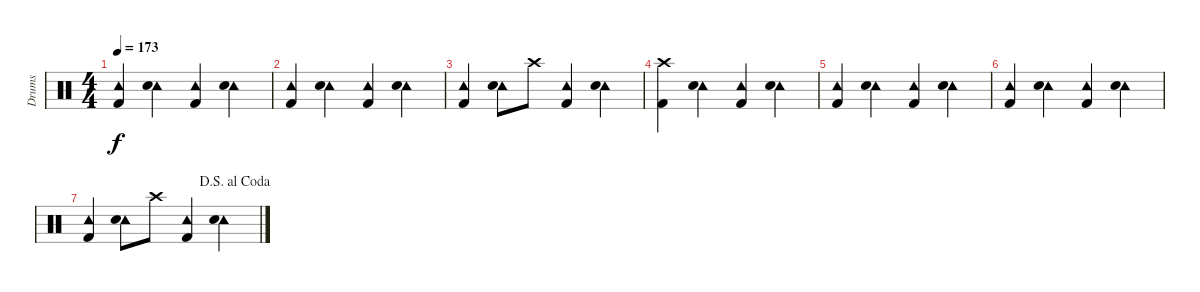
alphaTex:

\track ("Drums" "Drums") {instrument percussion}
\staff {score}
\articulation defaults
\ts (4 4)
\tempo 173
\clef neutral
\ks c
("Tambourine (hit)" "Kick (hit) 2").4{dy f} ("Tambourine (hit)" "Snare (hit) 2").4 ("Tambourine (hit)" "Kick (hit) 2").4 ("Tambourine (hit)" "Snare (hit) 2").4 |
("Tambourine (hit)" "Kick (hit) 2").4 ("Tambourine (hit)" "Snare (hit) 2").4 ("Tambourine (hit)" "Kick (hit) 2").4 ("Tambourine (hit)" "Snare (hit) 2").4 |
("Tambourine (hit)" "Kick (hit) 2").4 ("Tambourine (hit)" "Snare (hit) 2").8 "Crash high (hit)".8 ("Tambourine (hit)" "Kick (hit) 2").4 ("Tambourine (hit)" "Snare (hit) 2").4 |
("Crash high (hit)" "Kick (hit) 2").4 ("Tambourine (hit)" "Snare (hit) 2").4 ("Tambourine (hit)" "Kick (hit) 2").4 ("Tambourine (hit)" "Snare (hit) 2").4 |
("Tambourine (hit)" "Kick (hit) 2").4 ("Tambourine (hit)" "Snare (hit) 2").4 ("Tambourine (hit)" "Kick (hit) 2").4 ("Tambourine (hit)" "Snare (hit) 2").4 |
("Tambourine (hit)" "Kick (hit) 2").4 ("Tambourine (hit)" "Snare (hit) 2").4 ("Tambourine (hit)" "Kick (hit) 2").4 ("Tambourine (hit)" "Snare (hit) 2").4 |
\jump dalsegnoalcoda
("Tambourine (hit)" "Kick (hit) 2").4 ("Tambourine (hit)" "Snare (hit) 2").8 "Crash high (hit)".8 ("Tambourine (hit)" "Kick (hit) 2").4 ("Tambourine (hit)" "Snare (hit) 2").4
